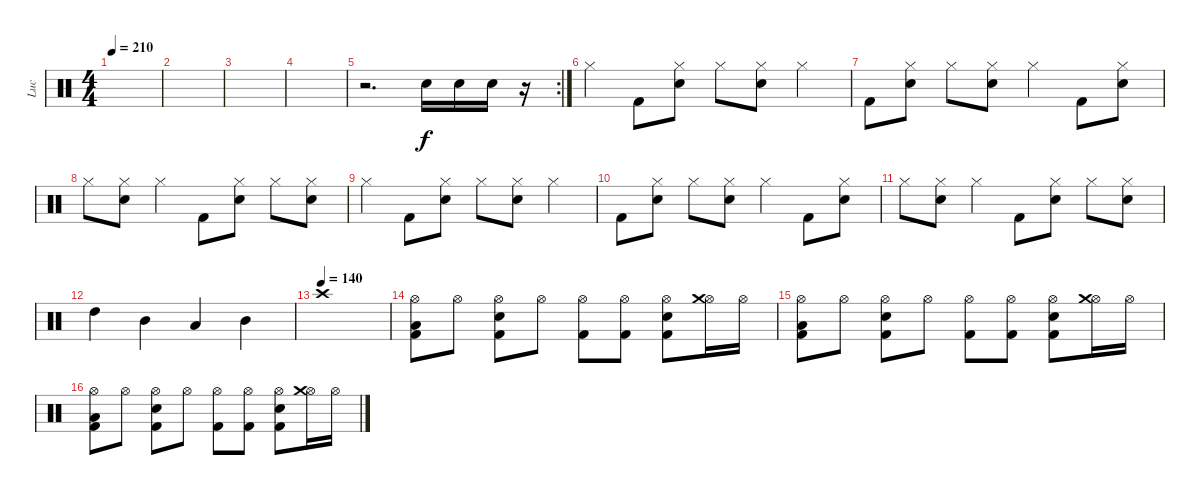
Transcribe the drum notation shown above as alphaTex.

\track ("Luc" "Luc") {instrument percussion}
\staff {score}
\articulation defaults
\ts (4 4)
\tempo 210
\clef neutral
\ks c
|
|
|
|
\rc 2
r.2{d} "Snare (hit) 2".16 "Snare (hit) 2".16 "Snare (hit) 2".16 r.16 |
"Hi-Hat (closed)".4 "Kick (hit) 2".8 ("Hi-Hat (closed)" "Snare (hit) 2").8 "Hi-Hat (closed)".8 ("Hi-Hat (closed)" "Snare (hit) 2").8 "Hi-Hat (closed)".4 |
"Kick (hit) 2".8 ("Hi-Hat (closed)" "Snare (hit) 2").8 "Hi-Hat (closed)".8 ("Hi-Hat (closed)" "Snare (hit) 2").8 "Hi-Hat (closed)".4 "Kick (hit) 2".8 ("Hi-Hat (closed)" "Snare (hit) 2").8 |
"Hi-Hat (closed)".8 ("Hi-Hat (closed)" "Snare (hit) 2").8 "Hi-Hat (closed)".4 "Kick (hit) 2".8 ("Hi-Hat (closed)" "Snare (hit) 2").8 "Hi-Hat (closed)".8 ("Hi-Hat (closed)" "Snare (hit) 2").8 |
"Hi-Hat (closed)".4 "Kick (hit) 2".8 ("Hi-Hat (closed)" "Snare (hit) 2").8 "Hi-Hat (closed)".8 ("Hi-Hat (closed)" "Snare (hit) 2").8 "Hi-Hat (closed)".4 |
"Kick (hit) 2".8 ("Hi-Hat (closed)" "Snare (hit) 2").8 "Hi-Hat (closed)".8 ("Hi-Hat (closed)" "Snare (hit) 2").8 "Hi-Hat (closed)".4 "Kick (hit) 2".8 ("Hi-Hat (closed)" "Snare (hit) 2").8 |
"Hi-Hat (closed)".8 ("Hi-Hat (closed)" "Snare (hit) 2").8 "Hi-Hat (closed)".4 "Kick (hit) 2".8 ("Hi-Hat (closed)" "Snare (hit) 2").8 "Hi-Hat (closed)".8 ("Hi-Hat (closed)" "Snare (hit) 2").8 |
"High Tom (hit)".4 "Mid Tom (hit)".4 "Low Tom (hit)".4 "Mid Tom (hit)".4 |
\tempo (140)
"Crash high (hit)".1 |
("Hi-Hat (open)" "Low Tom (hit)" "Kick (hit) 2").8 "Hi-Hat (open)".8 ("Hi-Hat (open)" "Snare (hit) 2" "Kick (hit) 2").8 "Hi-Hat (open)".8 ("Hi-Hat (open)" "Kick (hit) 2").8 ("Hi-Hat (open)" "Kick (hit) 2").8 ("Hi-Hat (open)" "Snare (hit) 2" "Kick (hit) 2").8 ("Hi-Hat (open)" "Crash medium (hit)").16 "Hi-Hat (open)".16 |
("Hi-Hat (open)" "Low Tom (hit)" "Kick (hit) 2").8 "Hi-Hat (open)".8 ("Hi-Hat (open)" "Snare (hit) 2" "Kick (hit) 2").8 "Hi-Hat (open)".8 ("Hi-Hat (open)" "Kick (hit) 2").8 ("Hi-Hat (open)" "Kick (hit) 2").8 ("Hi-Hat (open)" "Snare (hit) 2" "Kick (hit) 2").8 ("Hi-Hat (open)" "Crash medium (hit)").16 "Hi-Hat (open)".16 |
("Hi-Hat (open)" "Low Tom (hit)" "Kick (hit) 2").8 "Hi-Hat (open)".8 ("Hi-Hat (open)" "Snare (hit) 2" "Kick (hit) 2").8 "Hi-Hat (open)".8 ("Hi-Hat (open)" "Kick (hit) 2").8 ("Hi-Hat (open)" "Kick (hit) 2").8 ("Hi-Hat (open)" "Snare (hit) 2" "Kick (hit) 2").8 ("Hi-Hat (open)" "Crash medium (hit)").16 "Hi-Hat (open)".16
